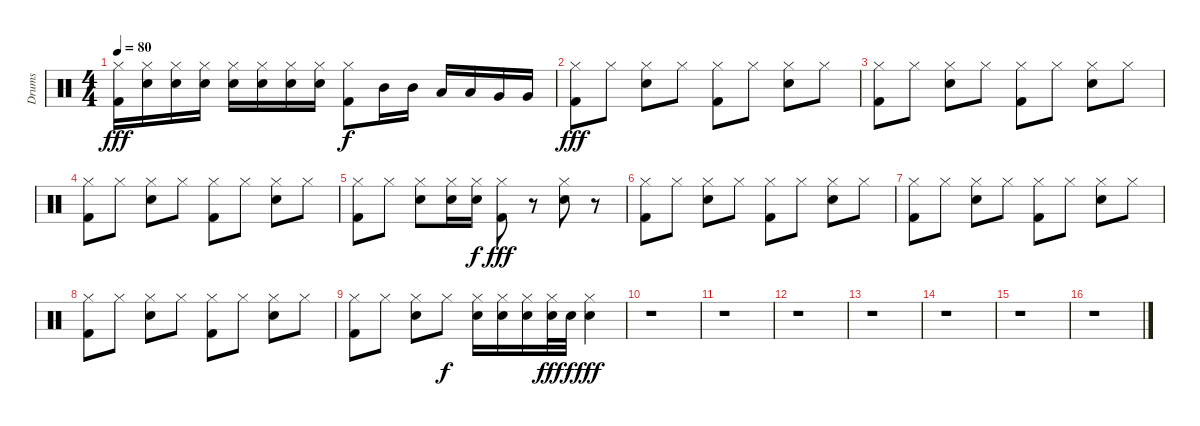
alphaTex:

\track ("Drums" "Drums") {instrument percussion}
\staff {score}
\articulation defaults
\ts (4 4)
\tempo 80
\clef neutral
\ks c
("Hi-Hat (closed)" "Kick (hit) 2").16{dy fff} ("Hi-Hat (closed)" "Snare (hit) 2").16 ("Hi-Hat (closed)" "Snare (hit) 2").16 ("Hi-Hat (closed)" "Snare (hit) 2").16 ("Hi-Hat (closed)" "Snare (hit) 2").16 ("Hi-Hat (closed)" "Snare (hit) 2").16 ("Hi-Hat (closed)" "Snare (hit) 2").16 ("Hi-Hat (closed)" "Snare (hit) 2").16 ("Hi-Hat (closed)" "Kick (hit) 2").8{dy f} "Mid Tom (hit)".16 "Mid Tom (hit)".16 "Low Tom (hit)".16 "Low Tom (hit)".16 "Very Low Tom (hit)".16 "Very Low Tom (hit)".16 |
("Hi-Hat (closed)" "Kick (hit) 2").8{dy fff} "Hi-Hat (closed)".8 ("Hi-Hat (closed)" "Snare (hit) 2").8 "Hi-Hat (closed)".8 ("Hi-Hat (closed)" "Kick (hit) 2").8 "Hi-Hat (closed)".8 ("Hi-Hat (closed)" "Snare (hit) 2").8 "Hi-Hat (closed)".8 |
("Hi-Hat (closed)" "Kick (hit) 2").8 "Hi-Hat (closed)".8 ("Hi-Hat (closed)" "Snare (hit) 2").8 "Hi-Hat (closed)".8 ("Hi-Hat (closed)" "Kick (hit) 2").8 "Hi-Hat (closed)".8 ("Hi-Hat (closed)" "Snare (hit) 2").8 "Hi-Hat (closed)".8 |
("Hi-Hat (closed)" "Kick (hit) 2").8 "Hi-Hat (closed)".8 ("Hi-Hat (closed)" "Snare (hit) 2").8 "Hi-Hat (closed)".8 ("Hi-Hat (closed)" "Kick (hit) 2").8 "Hi-Hat (closed)".8 ("Hi-Hat (closed)" "Snare (hit) 2").8 "Hi-Hat (closed)".8 |
("Hi-Hat (closed)" "Kick (hit) 2").8 "Hi-Hat (closed)".8 ("Hi-Hat (closed)" "Snare (hit) 2").8 ("Hi-Hat (closed)" "Snare (hit) 2").16 ("Hi-Hat (closed)" "Snare (hit) 2").16{dy f} ("Hi-Hat (closed)" "Kick (hit) 2").8{dy fff} r.8 ("Hi-Hat (closed)" "Snare (hit) 2").8 r.8 |
("Hi-Hat (closed)" "Kick (hit) 2").8 "Hi-Hat (closed)".8 ("Hi-Hat (closed)" "Snare (hit) 2").8 "Hi-Hat (closed)".8 ("Hi-Hat (closed)" "Kick (hit) 2").8 "Hi-Hat (closed)".8 ("Hi-Hat (closed)" "Snare (hit) 2").8 "Hi-Hat (closed)".8 |
("Hi-Hat (closed)" "Kick (hit) 2").8 "Hi-Hat (closed)".8 ("Hi-Hat (closed)" "Snare (hit) 2").8 "Hi-Hat (closed)".8 ("Hi-Hat (closed)" "Kick (hit) 2").8 "Hi-Hat (closed)".8 ("Hi-Hat (closed)" "Snare (hit) 2").8 "Hi-Hat (closed)".8 |
("Hi-Hat (closed)" "Kick (hit) 2").8 "Hi-Hat (closed)".8 ("Hi-Hat (closed)" "Snare (hit) 2").8 "Hi-Hat (closed)".8 ("Hi-Hat (closed)" "Kick (hit) 2").8 "Hi-Hat (closed)".8 ("Hi-Hat (closed)" "Snare (hit) 2").8 "Hi-Hat (closed)".8 |
("Hi-Hat (closed)" "Kick (hit) 2").8 "Hi-Hat (closed)".8 ("Hi-Hat (closed)" "Snare (hit) 2").8 "Hi-Hat (closed)".8{dy f} ("Hi-Hat (closed)" "Snare (hit) 2").16 ("Hi-Hat (closed)" "Snare (hit) 2").16 ("Hi-Hat (closed)" "Snare (hit) 2").16 ("Hi-Hat (closed)" "Snare (hit) 2").32{dy fff} "Snare (hit) 2".32{dy f} ("Hi-Hat (closed)" "Snare (hit) 2").4{dy fff} |
r.1 |
r.1 |
r.1 |
r.1 |
r.1 |
r.1 |
r.1
